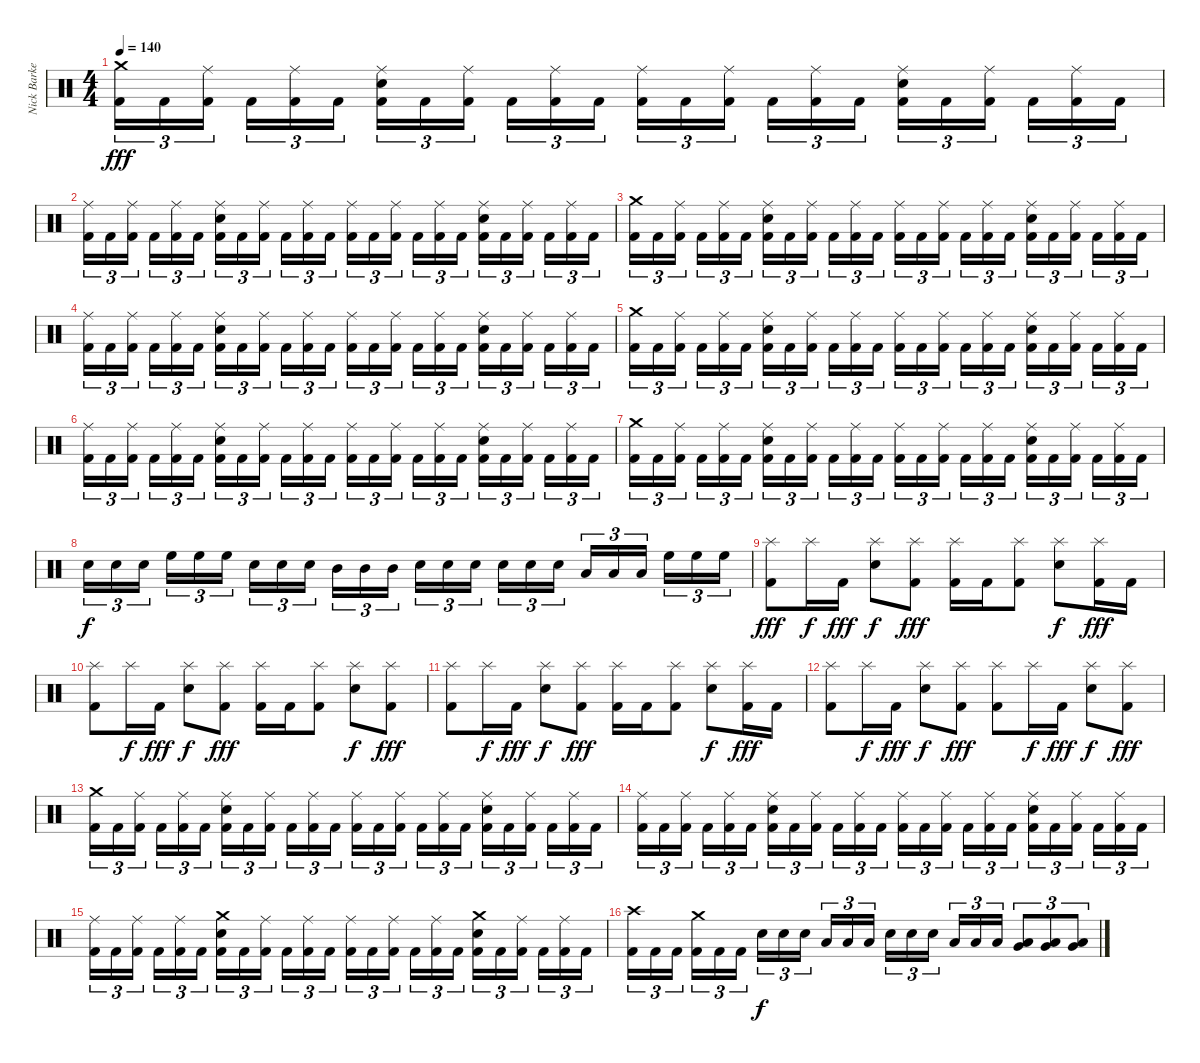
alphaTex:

\track ("Nick Barker - Drums - Percussion" "Nick Barke") {instrument percussion}
\staff {score}
\articulation defaults
\ts (4 4)
\tempo 140
\clef neutral
\ks c
("Kick (hit) 2" "Crash medium (hit)").16{tu (3 2) dy fff} "Kick (hit) 2".16{tu (3 2)} ("Kick (hit) 2" "Ride (middle)").16{tu (3 2)} "Kick (hit) 2".16{tu (3 2)} ("Kick (hit) 2" "Ride (middle)").16{tu (3 2)} "Kick (hit) 2".16{tu (3 2)} ("Kick (hit) 2" "Snare (hit) 2" "Ride (middle)").16{tu (3 2)} "Kick (hit) 2".16{tu (3 2)} ("Kick (hit) 2" "Ride (middle)").16{tu (3 2)} "Kick (hit) 2".16{tu (3 2)} ("Kick (hit) 2" "Ride (middle)").16{tu (3 2)} "Kick (hit) 2".16{tu (3 2)} ("Kick (hit) 2" "Ride (middle)").16{tu (3 2)} "Kick (hit) 2".16{tu (3 2)} ("Kick (hit) 2" "Ride (middle)").16{tu (3 2)} "Kick (hit) 2".16{tu (3 2)} ("Kick (hit) 2" "Ride (middle)").16{tu (3 2)} "Kick (hit) 2".16{tu (3 2)} ("Kick (hit) 2" "Snare (hit) 2" "Ride (middle)").16{tu (3 2)} "Kick (hit) 2".16{tu (3 2)} ("Kick (hit) 2" "Ride (middle)").16{tu (3 2)} "Kick (hit) 2".16{tu (3 2)} ("Kick (hit) 2" "Ride (middle)").16{tu (3 2)} "Kick (hit) 2".16{tu (3 2)} |
("Kick (hit) 2" "Ride (middle)").16{tu (3 2)} "Kick (hit) 2".16{tu (3 2)} ("Kick (hit) 2" "Ride (middle)").16{tu (3 2)} "Kick (hit) 2".16{tu (3 2)} ("Kick (hit) 2" "Ride (middle)").16{tu (3 2)} "Kick (hit) 2".16{tu (3 2)} ("Kick (hit) 2" "Snare (hit) 2" "Ride (middle)").16{tu (3 2)} "Kick (hit) 2".16{tu (3 2)} ("Kick (hit) 2" "Ride (middle)").16{tu (3 2)} "Kick (hit) 2".16{tu (3 2)} ("Kick (hit) 2" "Ride (middle)").16{tu (3 2)} "Kick (hit) 2".16{tu (3 2)} ("Kick (hit) 2" "Ride (middle)").16{tu (3 2)} "Kick (hit) 2".16{tu (3 2)} ("Kick (hit) 2" "Ride (middle)").16{tu (3 2)} "Kick (hit) 2".16{tu (3 2)} ("Kick (hit) 2" "Ride (middle)").16{tu (3 2)} "Kick (hit) 2".16{tu (3 2)} ("Kick (hit) 2" "Snare (hit) 2" "Ride (middle)").16{tu (3 2)} "Kick (hit) 2".16{tu (3 2)} ("Kick (hit) 2" "Ride (middle)").16{tu (3 2)} "Kick (hit) 2".16{tu (3 2)} ("Kick (hit) 2" "Ride (middle)").16{tu (3 2)} "Kick (hit) 2".16{tu (3 2)} |
("Kick (hit) 2" "Crash medium (hit)").16{tu (3 2)} "Kick (hit) 2".16{tu (3 2)} ("Kick (hit) 2" "Ride (middle)").16{tu (3 2)} "Kick (hit) 2".16{tu (3 2)} ("Kick (hit) 2" "Ride (middle)").16{tu (3 2)} "Kick (hit) 2".16{tu (3 2)} ("Kick (hit) 2" "Snare (hit) 2" "Ride (middle)").16{tu (3 2)} "Kick (hit) 2".16{tu (3 2)} ("Kick (hit) 2" "Ride (middle)").16{tu (3 2)} "Kick (hit) 2".16{tu (3 2)} ("Kick (hit) 2" "Ride (middle)").16{tu (3 2)} "Kick (hit) 2".16{tu (3 2)} ("Kick (hit) 2" "Ride (middle)").16{tu (3 2)} "Kick (hit) 2".16{tu (3 2)} ("Kick (hit) 2" "Ride (middle)").16{tu (3 2)} "Kick (hit) 2".16{tu (3 2)} ("Kick (hit) 2" "Ride (middle)").16{tu (3 2)} "Kick (hit) 2".16{tu (3 2)} ("Kick (hit) 2" "Snare (hit) 2" "Ride (middle)").16{tu (3 2)} "Kick (hit) 2".16{tu (3 2)} ("Kick (hit) 2" "Ride (middle)").16{tu (3 2)} "Kick (hit) 2".16{tu (3 2)} ("Kick (hit) 2" "Ride (middle)").16{tu (3 2)} "Kick (hit) 2".16{tu (3 2)} |
("Kick (hit) 2" "Ride (middle)").16{tu (3 2)} "Kick (hit) 2".16{tu (3 2)} ("Kick (hit) 2" "Ride (middle)").16{tu (3 2)} "Kick (hit) 2".16{tu (3 2)} ("Kick (hit) 2" "Ride (middle)").16{tu (3 2)} "Kick (hit) 2".16{tu (3 2)} ("Kick (hit) 2" "Snare (hit) 2" "Ride (middle)").16{tu (3 2)} "Kick (hit) 2".16{tu (3 2)} ("Kick (hit) 2" "Ride (middle)").16{tu (3 2)} "Kick (hit) 2".16{tu (3 2)} ("Kick (hit) 2" "Ride (middle)").16{tu (3 2)} "Kick (hit) 2".16{tu (3 2)} ("Kick (hit) 2" "Ride (middle)").16{tu (3 2)} "Kick (hit) 2".16{tu (3 2)} ("Kick (hit) 2" "Ride (middle)").16{tu (3 2)} "Kick (hit) 2".16{tu (3 2)} ("Kick (hit) 2" "Ride (middle)").16{tu (3 2)} "Kick (hit) 2".16{tu (3 2)} ("Kick (hit) 2" "Snare (hit) 2" "Ride (middle)").16{tu (3 2)} "Kick (hit) 2".16{tu (3 2)} ("Kick (hit) 2" "Ride (middle)").16{tu (3 2)} "Kick (hit) 2".16{tu (3 2)} ("Kick (hit) 2" "Ride (middle)").16{tu (3 2)} "Kick (hit) 2".16{tu (3 2)} |
("Kick (hit) 2" "Crash medium (hit)").16{tu (3 2)} "Kick (hit) 2".16{tu (3 2)} ("Kick (hit) 2" "Ride (middle)").16{tu (3 2)} "Kick (hit) 2".16{tu (3 2)} ("Kick (hit) 2" "Ride (middle)").16{tu (3 2)} "Kick (hit) 2".16{tu (3 2)} ("Kick (hit) 2" "Snare (hit) 2" "Ride (middle)").16{tu (3 2)} "Kick (hit) 2".16{tu (3 2)} ("Kick (hit) 2" "Ride (middle)").16{tu (3 2)} "Kick (hit) 2".16{tu (3 2)} ("Kick (hit) 2" "Ride (middle)").16{tu (3 2)} "Kick (hit) 2".16{tu (3 2)} ("Kick (hit) 2" "Ride (middle)").16{tu (3 2)} "Kick (hit) 2".16{tu (3 2)} ("Kick (hit) 2" "Ride (middle)").16{tu (3 2)} "Kick (hit) 2".16{tu (3 2)} ("Kick (hit) 2" "Ride (middle)").16{tu (3 2)} "Kick (hit) 2".16{tu (3 2)} ("Kick (hit) 2" "Snare (hit) 2" "Ride (middle)").16{tu (3 2)} "Kick (hit) 2".16{tu (3 2)} ("Kick (hit) 2" "Ride (middle)").16{tu (3 2)} "Kick (hit) 2".16{tu (3 2)} ("Kick (hit) 2" "Ride (middle)").16{tu (3 2)} "Kick (hit) 2".16{tu (3 2)} |
("Kick (hit) 2" "Ride (middle)").16{tu (3 2)} "Kick (hit) 2".16{tu (3 2)} ("Kick (hit) 2" "Ride (middle)").16{tu (3 2)} "Kick (hit) 2".16{tu (3 2)} ("Kick (hit) 2" "Ride (middle)").16{tu (3 2)} "Kick (hit) 2".16{tu (3 2)} ("Kick (hit) 2" "Snare (hit) 2" "Ride (middle)").16{tu (3 2)} "Kick (hit) 2".16{tu (3 2)} ("Kick (hit) 2" "Ride (middle)").16{tu (3 2)} "Kick (hit) 2".16{tu (3 2)} ("Kick (hit) 2" "Ride (middle)").16{tu (3 2)} "Kick (hit) 2".16{tu (3 2)} ("Kick (hit) 2" "Ride (middle)").16{tu (3 2)} "Kick (hit) 2".16{tu (3 2)} ("Kick (hit) 2" "Ride (middle)").16{tu (3 2)} "Kick (hit) 2".16{tu (3 2)} ("Kick (hit) 2" "Ride (middle)").16{tu (3 2)} "Kick (hit) 2".16{tu (3 2)} ("Kick (hit) 2" "Snare (hit) 2" "Ride (middle)").16{tu (3 2)} "Kick (hit) 2".16{tu (3 2)} ("Kick (hit) 2" "Ride (middle)").16{tu (3 2)} "Kick (hit) 2".16{tu (3 2)} ("Kick (hit) 2" "Ride (middle)").16{tu (3 2)} "Kick (hit) 2".16{tu (3 2)} |
("Kick (hit) 2" "Crash medium (hit)").16{tu (3 2)} "Kick (hit) 2".16{tu (3 2)} ("Kick (hit) 2" "Ride (middle)").16{tu (3 2)} "Kick (hit) 2".16{tu (3 2)} ("Kick (hit) 2" "Ride (middle)").16{tu (3 2)} "Kick (hit) 2".16{tu (3 2)} ("Kick (hit) 2" "Snare (hit) 2" "Ride (middle)").16{tu (3 2)} "Kick (hit) 2".16{tu (3 2)} ("Kick (hit) 2" "Ride (middle)").16{tu (3 2)} "Kick (hit) 2".16{tu (3 2)} ("Kick (hit) 2" "Ride (middle)").16{tu (3 2)} "Kick (hit) 2".16{tu (3 2)} ("Kick (hit) 2" "Ride (middle)").16{tu (3 2)} "Kick (hit) 2".16{tu (3 2)} ("Kick (hit) 2" "Ride (middle)").16{tu (3 2)} "Kick (hit) 2".16{tu (3 2)} ("Kick (hit) 2" "Ride (middle)").16{tu (3 2)} "Kick (hit) 2".16{tu (3 2)} ("Kick (hit) 2" "Snare (hit) 2" "Ride (middle)").16{tu (3 2)} "Kick (hit) 2".16{tu (3 2)} ("Kick (hit) 2" "Ride (middle)").16{tu (3 2)} "Kick (hit) 2".16{tu (3 2)} ("Kick (hit) 2" "Ride (middle)").16{tu (3 2)} "Kick (hit) 2".16{tu (3 2)} |
"Snare (hit) 2".16{tu (3 2) dy f} "Snare (hit) 2".16{tu (3 2)} "Snare (hit) 2".16{tu (3 2)} "High Floor Tom (hit)".16{tu (3 2)} "High Floor Tom (hit)".16{tu (3 2)} "High Floor Tom (hit)".16{tu (3 2)} "Snare (hit) 2".16{tu (3 2)} "Snare (hit) 2".16{tu (3 2)} "Snare (hit) 2".16{tu (3 2)} "Mid Tom (hit)".16{tu (3 2)} "Mid Tom (hit)".16{tu (3 2)} "Mid Tom (hit)".16{tu (3 2)} "Snare (hit) 2".16{tu (3 2)} "Snare (hit) 2".16{tu (3 2)} "Snare (hit) 2".16{tu (3 2)} "Snare (hit) 2".16{tu (3 2)} "Snare (hit) 2".16{tu (3 2)} "Snare (hit) 2".16{tu (3 2)} "Low Tom (hit)".16{tu (3 2)} "Low Tom (hit)".16{tu (3 2)} "Low Tom (hit)".16{tu (3 2)} "High Floor Tom (hit)".16{tu (3 2)} "High Floor Tom (hit)".16{tu (3 2)} "High Floor Tom (hit)".16{tu (3 2)} |
("Kick (hit) 2" "Splash (hit)").8{dy fff} "Splash (hit)".16{dy f} "Kick (hit) 2".16{dy fff} ("Snare (hit) 2" "Splash (hit)").8{dy f} ("Kick (hit) 2" "Splash (hit)").8{dy fff} ("Kick (hit) 2" "Splash (hit)").16 "Kick (hit) 2".16 ("Kick (hit) 2" "Splash (hit)").8 ("Snare (hit) 2" "Splash (hit)").8{dy f} ("Kick (hit) 2" "Splash (hit)").16{dy fff} "Kick (hit) 2".16 |
("Kick (hit) 2" "Splash (hit)").8 "Splash (hit)".16{dy f} "Kick (hit) 2".16{dy fff} ("Snare (hit) 2" "Splash (hit)").8{dy f} ("Kick (hit) 2" "Splash (hit)").8{dy fff} ("Kick (hit) 2" "Splash (hit)").16 "Kick (hit) 2".16 ("Kick (hit) 2" "Splash (hit)").8 ("Snare (hit) 2" "Splash (hit)").8{dy f} ("Kick (hit) 2" "Splash (hit)").8{dy fff} |
("Kick (hit) 2" "Splash (hit)").8 "Splash (hit)".16{dy f} "Kick (hit) 2".16{dy fff} ("Snare (hit) 2" "Splash (hit)").8{dy f} ("Kick (hit) 2" "Splash (hit)").8{dy fff} ("Kick (hit) 2" "Splash (hit)").16 "Kick (hit) 2".16 ("Kick (hit) 2" "Splash (hit)").8 ("Snare (hit) 2" "Splash (hit)").8{dy f} ("Kick (hit) 2" "Splash (hit)").16{dy fff} "Kick (hit) 2".16 |
("Kick (hit) 2" "Splash (hit)").8 "Splash (hit)".16{dy f} "Kick (hit) 2".16{dy fff} ("Snare (hit) 2" "Splash (hit)").8{dy f} ("Kick (hit) 2" "Splash (hit)").8{dy fff} ("Kick (hit) 2" "Splash (hit)").8 "Splash (hit)".16{dy f} "Kick (hit) 2".16{dy fff} ("Snare (hit) 2" "Splash (hit)").8{dy f} ("Kick (hit) 2" "Splash (hit)").8{dy fff} |
("Kick (hit) 2" "Crash medium (hit)").16{tu (3 2)} "Kick (hit) 2".16{tu (3 2)} ("Kick (hit) 2" "Ride (middle)").16{tu (3 2)} "Kick (hit) 2".16{tu (3 2)} ("Kick (hit) 2" "Ride (middle)").16{tu (3 2)} "Kick (hit) 2".16{tu (3 2)} ("Kick (hit) 2" "Snare (hit) 2" "Ride (middle)").16{tu (3 2)} "Kick (hit) 2".16{tu (3 2)} ("Kick (hit) 2" "Ride (middle)").16{tu (3 2)} "Kick (hit) 2".16{tu (3 2)} ("Kick (hit) 2" "Ride (middle)").16{tu (3 2)} "Kick (hit) 2".16{tu (3 2)} ("Kick (hit) 2" "Ride (middle)").16{tu (3 2)} "Kick (hit) 2".16{tu (3 2)} ("Kick (hit) 2" "Ride (middle)").16{tu (3 2)} "Kick (hit) 2".16{tu (3 2)} ("Kick (hit) 2" "Ride (middle)").16{tu (3 2)} "Kick (hit) 2".16{tu (3 2)} ("Kick (hit) 2" "Snare (hit) 2" "Ride (middle)").16{tu (3 2)} "Kick (hit) 2".16{tu (3 2)} ("Kick (hit) 2" "Ride (middle)").16{tu (3 2)} "Kick (hit) 2".16{tu (3 2)} ("Kick (hit) 2" "Ride (middle)").16{tu (3 2)} "Kick (hit) 2".16{tu (3 2)} |
("Kick (hit) 2" "Ride (middle)").16{tu (3 2)} "Kick (hit) 2".16{tu (3 2)} ("Kick (hit) 2" "Ride (middle)").16{tu (3 2)} "Kick (hit) 2".16{tu (3 2)} ("Kick (hit) 2" "Ride (middle)").16{tu (3 2)} "Kick (hit) 2".16{tu (3 2)} ("Kick (hit) 2" "Snare (hit) 2" "Ride (middle)").16{tu (3 2)} "Kick (hit) 2".16{tu (3 2)} ("Kick (hit) 2" "Ride (middle)").16{tu (3 2)} "Kick (hit) 2".16{tu (3 2)} ("Kick (hit) 2" "Ride (middle)").16{tu (3 2)} "Kick (hit) 2".16{tu (3 2)} ("Kick (hit) 2" "Ride (middle)").16{tu (3 2)} "Kick (hit) 2".16{tu (3 2)} ("Kick (hit) 2" "Ride (middle)").16{tu (3 2)} "Kick (hit) 2".16{tu (3 2)} ("Kick (hit) 2" "Ride (middle)").16{tu (3 2)} "Kick (hit) 2".16{tu (3 2)} ("Kick (hit) 2" "Snare (hit) 2" "Ride (middle)").16{tu (3 2)} "Kick (hit) 2".16{tu (3 2)} ("Kick (hit) 2" "Ride (middle)").16{tu (3 2)} "Kick (hit) 2".16{tu (3 2)} ("Kick (hit) 2" "Ride (middle)").16{tu (3 2)} "Kick (hit) 2".16{tu (3 2)} |
("Kick (hit) 2" "Ride (middle)").16{tu (3 2)} "Kick (hit) 2".16{tu (3 2)} ("Kick (hit) 2" "Ride (middle)").16{tu (3 2)} "Kick (hit) 2".16{tu (3 2)} ("Kick (hit) 2" "Ride (middle)").16{tu (3 2)} "Kick (hit) 2".16{tu (3 2)} ("Kick (hit) 2" "Snare (hit) 2" "Crash medium (hit)").16{tu (3 2)} "Kick (hit) 2".16{tu (3 2)} ("Kick (hit) 2" "Ride (middle)").16{tu (3 2)} "Kick (hit) 2".16{tu (3 2)} ("Kick (hit) 2" "Ride (middle)").16{tu (3 2)} "Kick (hit) 2".16{tu (3 2)} ("Kick (hit) 2" "Ride (middle)").16{tu (3 2)} "Kick (hit) 2".16{tu (3 2)} ("Kick (hit) 2" "Ride (middle)").16{tu (3 2)} "Kick (hit) 2".16{tu (3 2)} ("Kick (hit) 2" "Ride (middle)").16{tu (3 2)} "Kick (hit) 2".16{tu (3 2)} ("Kick (hit) 2" "Snare (hit) 2" "Crash medium (hit)").16{tu (3 2)} "Kick (hit) 2".16{tu (3 2)} ("Kick (hit) 2" "Ride (middle)").16{tu (3 2)} "Kick (hit) 2".16{tu (3 2)} ("Kick (hit) 2" "Ride (middle)").16{tu (3 2)} "Kick (hit) 2".16{tu (3 2)} |
("Kick (hit) 2" "Crash high (hit)").16{tu (3 2)} "Kick (hit) 2".16{tu (3 2)} "Kick (hit) 2".16{tu (3 2)} ("Kick (hit) 2" "Crash medium (hit)").16{tu (3 2)} "Kick (hit) 2".16{tu (3 2)} "Kick (hit) 2".16{tu (3 2)} "Snare (hit) 2".16{tu (3 2) dy f} "Snare (hit) 2".16{tu (3 2)} "Snare (hit) 2".16{tu (3 2)} "Low Tom (hit)".16{tu (3 2)} "Low Tom (hit)".16{tu (3 2)} "Low Tom (hit)".16{tu (3 2)} "Snare (hit) 2".16{tu (3 2)} "Snare (hit) 2".16{tu (3 2)} "Snare (hit) 2".16{tu (3 2)} "Low Tom (hit)".16{tu (3 2)} "Low Tom (hit)".16{tu (3 2)} "Low Tom (hit)".16{tu (3 2)} ("Low Floor Tom (hit)" "Very Low Tom (hit)").8{tu (3 2)} ("Low Floor Tom (hit)" "Very Low Tom (hit)").8{tu (3 2)} ("Low Floor Tom (hit)" "Very Low Tom (hit)").8{tu (3 2)}
